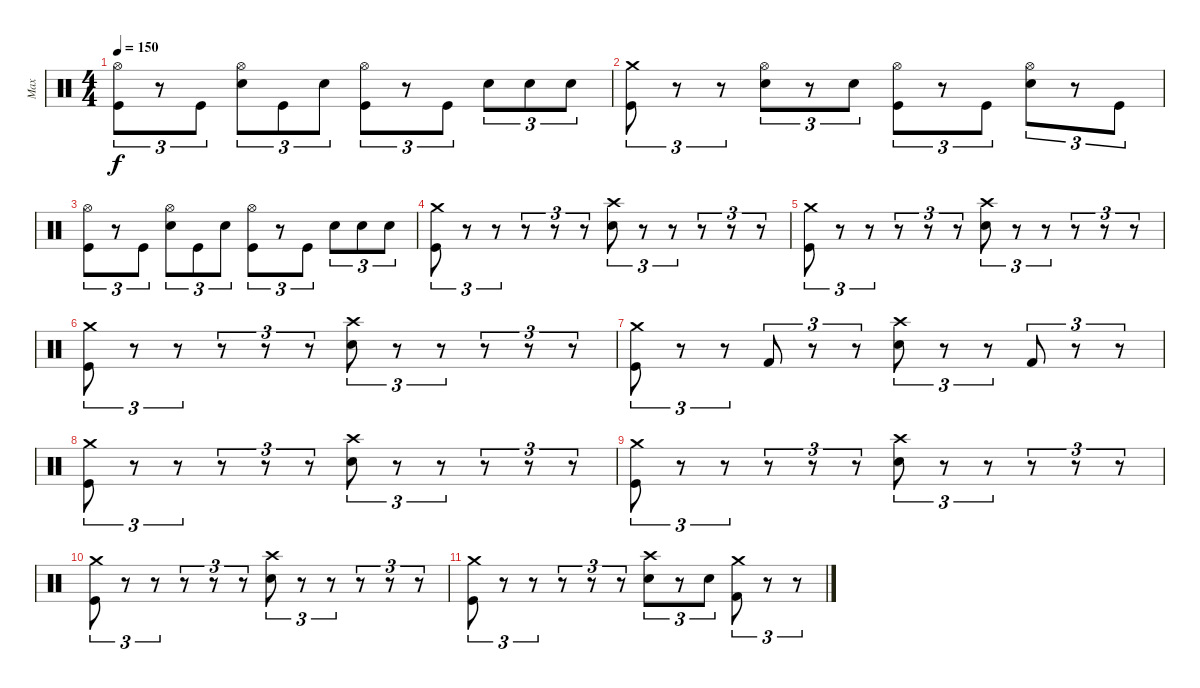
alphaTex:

\track ("Max" "Max") {instrument percussion}
\staff {score}
\articulation defaults
\ts (4 4)
\tempo 150
\clef neutral
\ks c
("Hi-Hat (open)" "Kick (hit)").8{tu (3 2) dy f} r.8{tu (3 2)} "Kick (hit)".8{tu (3 2)} ("Hi-Hat (open)" "Electric Snare (hit)").8{tu (3 2)} "Kick (hit)".8{tu (3 2)} "Electric Snare (hit)".8{tu (3 2)} ("Hi-Hat (open)" "Kick (hit)").8{tu (3 2)} r.8{tu (3 2)} "Kick (hit)".8{tu (3 2)} "Electric Snare (hit)".8{tu (3 2)} "Electric Snare (hit)".8{tu (3 2)} "Electric Snare (hit)".8{tu (3 2)} |
("Crash medium (hit)" "Kick (hit)").8{tu (3 2)} r.8{tu (3 2)} r.8{tu (3 2)} ("Hi-Hat (open)" "Electric Snare (hit)").8{tu (3 2)} r.8{tu (3 2)} "Electric Snare (hit)".8{tu (3 2)} ("Hi-Hat (open)" "Kick (hit)").8{tu (3 2)} r.8{tu (3 2)} "Kick (hit)".8{tu (3 2)} ("Hi-Hat (open)" "Electric Snare (hit)").8{tu (3 2)} r.8{tu (3 2)} "Kick (hit)".8{tu (3 2)} |
("Hi-Hat (open)" "Kick (hit)").8{tu (3 2)} r.8{tu (3 2)} "Kick (hit)".8{tu (3 2)} ("Hi-Hat (open)" "Electric Snare (hit)").8{tu (3 2)} "Kick (hit)".8{tu (3 2)} "Electric Snare (hit)".8{tu (3 2)} ("Hi-Hat (open)" "Kick (hit)").8{tu (3 2)} r.8{tu (3 2)} "Kick (hit)".8{tu (3 2)} "Electric Snare (hit)".8{tu (3 2)} "Electric Snare (hit)".8{tu (3 2)} "Electric Snare (hit)".8{tu (3 2)} |
("Crash medium (hit)" "Kick (hit)").8{tu (3 2)} r.8{tu (3 2)} r.8{tu (3 2)} r.8{tu (3 2)} r.8{tu (3 2)} r.8{tu (3 2)} ("Crash high (hit)" "Electric Snare (hit)").8{tu (3 2)} r.8{tu (3 2)} r.8{tu (3 2)} r.8{tu (3 2)} r.8{tu (3 2)} r.8{tu (3 2)} |
("Crash medium (hit)" "Kick (hit)").8{tu (3 2)} r.8{tu (3 2)} r.8{tu (3 2)} r.8{tu (3 2)} r.8{tu (3 2)} r.8{tu (3 2)} ("Crash high (hit)" "Electric Snare (hit)").8{tu (3 2)} r.8{tu (3 2)} r.8{tu (3 2)} r.8{tu (3 2)} r.8{tu (3 2)} r.8{tu (3 2)} |
("Crash medium (hit)" "Kick (hit)").8{tu (3 2)} r.8{tu (3 2)} r.8{tu (3 2)} r.8{tu (3 2)} r.8{tu (3 2)} r.8{tu (3 2)} ("Crash high (hit)" "Electric Snare (hit)").8{tu (3 2)} r.8{tu (3 2)} r.8{tu (3 2)} r.8{tu (3 2)} r.8{tu (3 2)} r.8{tu (3 2)} |
("Crash medium (hit)" "Kick (hit)").8{tu (3 2)} r.8{tu (3 2)} r.8{tu (3 2)} "Kick (hit) 2".8{tu (3 2)} r.8{tu (3 2)} r.8{tu (3 2)} ("Crash high (hit)" "Electric Snare (hit)").8{tu (3 2)} r.8{tu (3 2)} r.8{tu (3 2)} "Kick (hit) 2".8{tu (3 2)} r.8{tu (3 2)} r.8{tu (3 2)} |
("Crash medium (hit)" "Kick (hit)").8{tu (3 2)} r.8{tu (3 2)} r.8{tu (3 2)} r.8{tu (3 2)} r.8{tu (3 2)} r.8{tu (3 2)} ("Crash high (hit)" "Electric Snare (hit)").8{tu (3 2)} r.8{tu (3 2)} r.8{tu (3 2)} r.8{tu (3 2)} r.8{tu (3 2)} r.8{tu (3 2)} |
("Crash medium (hit)" "Kick (hit)").8{tu (3 2)} r.8{tu (3 2)} r.8{tu (3 2)} r.8{tu (3 2)} r.8{tu (3 2)} r.8{tu (3 2)} ("Crash high (hit)" "Electric Snare (hit)").8{tu (3 2)} r.8{tu (3 2)} r.8{tu (3 2)} r.8{tu (3 2)} r.8{tu (3 2)} r.8{tu (3 2)} |
("Crash medium (hit)" "Kick (hit)").8{tu (3 2)} r.8{tu (3 2)} r.8{tu (3 2)} r.8{tu (3 2)} r.8{tu (3 2)} r.8{tu (3 2)} ("Crash high (hit)" "Electric Snare (hit)").8{tu (3 2)} r.8{tu (3 2)} r.8{tu (3 2)} r.8{tu (3 2)} r.8{tu (3 2)} r.8{tu (3 2)} |
("Crash medium (hit)" "Kick (hit)").8{tu (3 2)} r.8{tu (3 2)} r.8{tu (3 2)} r.8{tu (3 2)} r.8{tu (3 2)} r.8{tu (3 2)} ("Crash high (hit)" "Electric Snare (hit)").8{tu (3 2)} r.8{tu (3 2)} "Electric Snare (hit)".8{tu (3 2)} ("Crash medium (hit)" "Kick (hit) 2").8{tu (3 2)} r.8{tu (3 2)} r.8{tu (3 2)}
